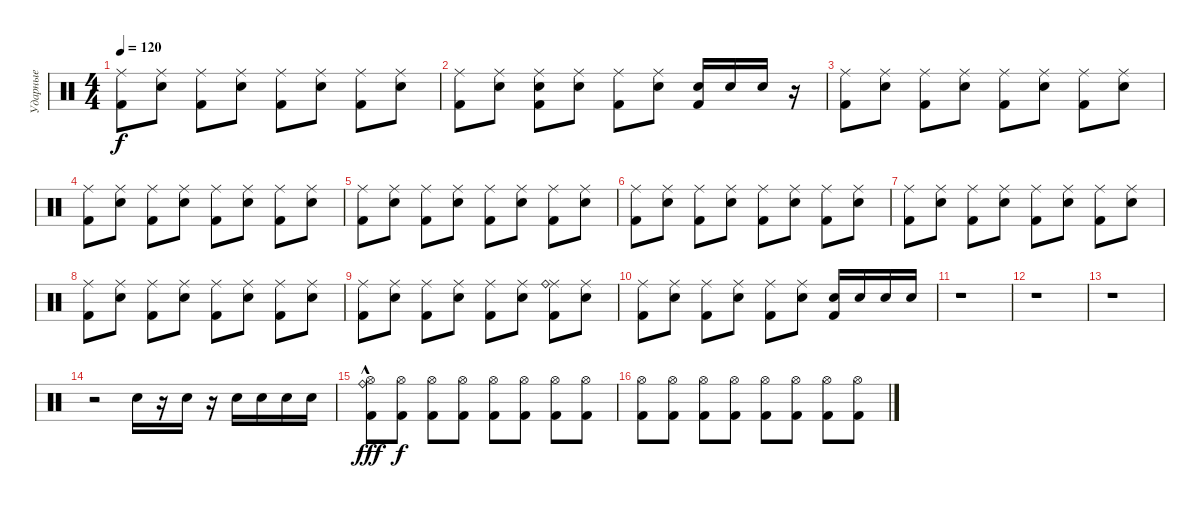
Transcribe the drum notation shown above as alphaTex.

\track ("Ударные" "Ударные") {instrument percussion}
\staff {score}
\articulation defaults
\ts (4 4)
\tempo 120
\clef neutral
\ks c
("Kick (hit) 2" "Ride (middle)").8{dy f} ("Electric Snare (hit)" "Ride (middle)").8 ("Kick (hit) 2" "Ride (middle)").8 ("Electric Snare (hit)" "Ride (middle)").8 ("Kick (hit) 2" "Ride (middle)").8 ("Electric Snare (hit)" "Ride (middle)").8 ("Kick (hit) 2" "Ride (middle)").8 ("Electric Snare (hit)" "Ride (middle)").8 |
("Kick (hit) 2" "Ride (middle)").8 ("Electric Snare (hit)" "Ride (middle)").8 ("Electric Snare (hit)" "Kick (hit) 2" "Ride (middle)").8 ("Electric Snare (hit)" "Ride (middle)").8 ("Kick (hit) 2" "Ride (middle)").8 ("Electric Snare (hit)" "Ride (middle)").8 ("Electric Snare (hit)" "Kick (hit) 2").16 "Electric Snare (hit)".16 "Electric Snare (hit)".16 r.16 |
("Kick (hit) 2" "Ride (middle)").8 ("Electric Snare (hit)" "Ride (middle)").8 ("Kick (hit) 2" "Ride (middle)").8 ("Electric Snare (hit)" "Ride (middle)").8 ("Kick (hit) 2" "Ride (middle)").8 ("Electric Snare (hit)" "Ride (middle)").8 ("Kick (hit) 2" "Ride (middle)").8 ("Electric Snare (hit)" "Ride (middle)").8 |
("Kick (hit) 2" "Ride (middle)").8 ("Electric Snare (hit)" "Ride (middle)").8 ("Kick (hit) 2" "Ride (middle)").8 ("Electric Snare (hit)" "Ride (middle)").8 ("Kick (hit) 2" "Ride (middle)").8 ("Electric Snare (hit)" "Ride (middle)").8 ("Kick (hit) 2" "Ride (middle)").8 ("Electric Snare (hit)" "Ride (middle)").8 |
("Kick (hit) 2" "Ride (middle)").8 ("Electric Snare (hit)" "Ride (middle)").8 ("Kick (hit) 2" "Ride (middle)").8 ("Electric Snare (hit)" "Ride (middle)").8 ("Kick (hit) 2" "Ride (middle)").8 ("Electric Snare (hit)" "Ride (middle)").8 ("Kick (hit) 2" "Ride (middle)").8 ("Electric Snare (hit)" "Ride (middle)").8 |
("Kick (hit) 2" "Ride (middle)").8 ("Electric Snare (hit)" "Ride (middle)").8 ("Kick (hit) 2" "Ride (middle)").8 ("Electric Snare (hit)" "Ride (middle)").8 ("Kick (hit) 2" "Ride (middle)").8 ("Electric Snare (hit)" "Ride (middle)").8 ("Kick (hit) 2" "Ride (middle)").8 ("Electric Snare (hit)" "Ride (middle)").8 |
("Kick (hit) 2" "Ride (middle)").8 ("Electric Snare (hit)" "Ride (middle)").8 ("Kick (hit) 2" "Ride (middle)").8 ("Electric Snare (hit)" "Ride (middle)").8 ("Kick (hit) 2" "Ride (middle)").8 ("Electric Snare (hit)" "Ride (middle)").8 ("Kick (hit) 2" "Ride (middle)").8 ("Electric Snare (hit)" "Ride (middle)").8 |
("Kick (hit) 2" "Ride (middle)").8 ("Electric Snare (hit)" "Ride (middle)").8 ("Kick (hit) 2" "Ride (middle)").8 ("Electric Snare (hit)" "Ride (middle)").8 ("Kick (hit) 2" "Ride (middle)").8 ("Electric Snare (hit)" "Ride (middle)").8 ("Kick (hit) 2" "Ride (middle)").8 ("Electric Snare (hit)" "Ride (middle)").8 |
("Kick (hit) 2" "Ride (middle)").8 ("Electric Snare (hit)" "Ride (middle)").8 ("Kick (hit) 2" "Ride (middle)").8 ("Electric Snare (hit)" "Ride (middle)").8 ("Kick (hit) 2" "Ride (middle)").8 ("Electric Snare (hit)" "Ride (middle)").8 ("Kick (hit) 2" "Ride (middle)" "Ride (bell)").8 ("Electric Snare (hit)" "Ride (middle)").8 |
("Kick (hit) 2" "Ride (middle)").8 ("Electric Snare (hit)" "Ride (middle)").8 ("Kick (hit) 2" "Ride (middle)").8 ("Electric Snare (hit)" "Ride (middle)").8 ("Kick (hit) 2" "Ride (middle)").8 ("Electric Snare (hit)" "Ride (middle)").8 ("Electric Snare (hit)" "Kick (hit) 2").16 "Electric Snare (hit)".16 "Electric Snare (hit)".16 "Electric Snare (hit)".16 |
r.1 |
r.1 |
r.1 |
r.2 "Electric Snare (hit)".16 r.16 "Electric Snare (hit)".16 r.16 "Electric Snare (hit)".16 "Electric Snare (hit)".16 "Electric Snare (hit)".16 "Electric Snare (hit)".16 |
("Kick (hit) 2" "Hi-Hat (open)" "Ride (bell)"{hac}).8{dy fff} ("Kick (hit) 2" "Hi-Hat (open)").8{dy f} ("Kick (hit) 2" "Hi-Hat (open)").8 ("Kick (hit) 2" "Hi-Hat (open)").8 ("Kick (hit) 2" "Hi-Hat (open)").8 ("Kick (hit) 2" "Hi-Hat (open)").8 ("Kick (hit) 2" "Hi-Hat (open)").8 ("Kick (hit) 2" "Hi-Hat (open)").8 |
("Kick (hit) 2" "Hi-Hat (open)").8 ("Kick (hit) 2" "Hi-Hat (open)").8 ("Kick (hit) 2" "Hi-Hat (open)").8 ("Kick (hit) 2" "Hi-Hat (open)").8 ("Kick (hit) 2" "Hi-Hat (open)").8 ("Kick (hit) 2" "Hi-Hat (open)").8 ("Kick (hit) 2" "Hi-Hat (open)").8 ("Kick (hit) 2" "Hi-Hat (open)").8
